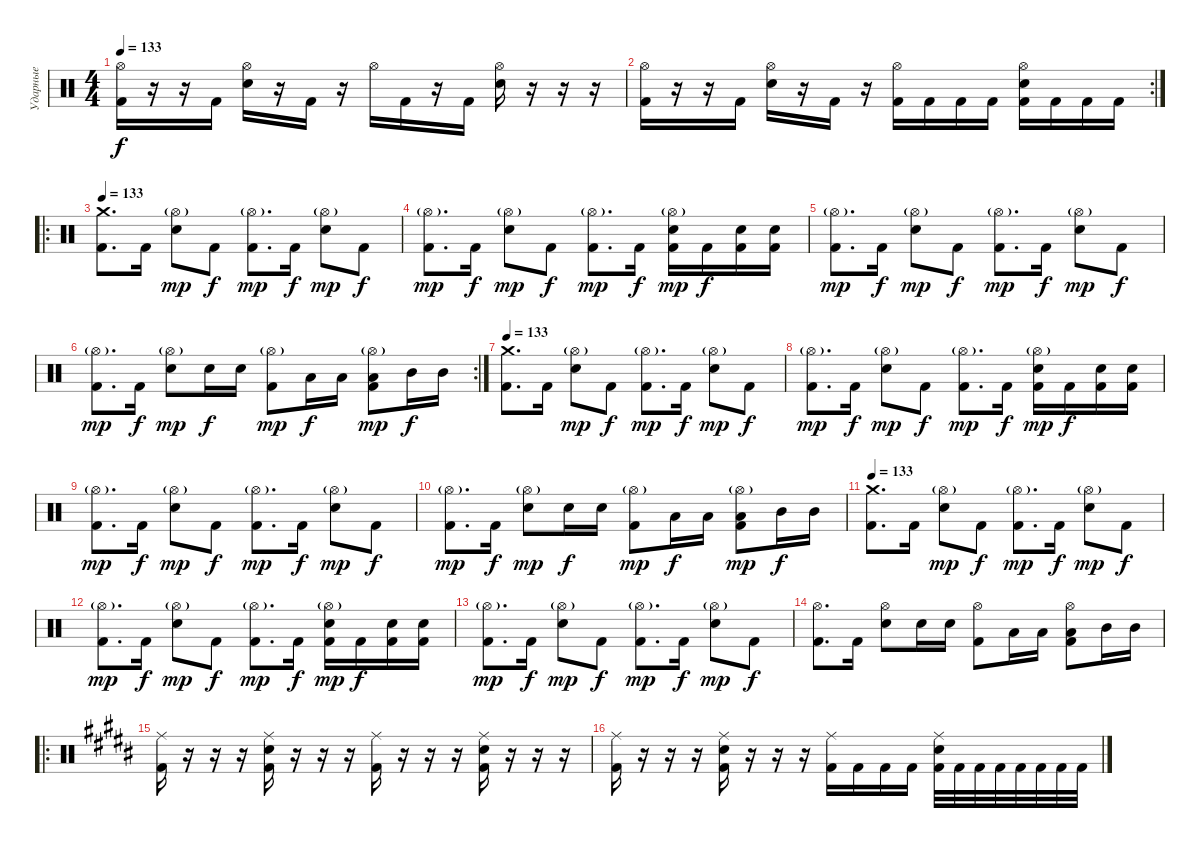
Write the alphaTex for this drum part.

\track ("Ударные" "Ударные") {instrument percussion}
\staff {score}
\articulation defaults
\ts (4 4)
\tempo 133
\clef neutral
\ks c
("Hi-Hat (open)" "Kick (hit) 2").16{dy f} r.16 r.16 "Kick (hit) 2".16 ("Hi-Hat (open)" "Electric Snare (hit)").16 r.16 "Kick (hit) 2".16 r.16 "Hi-Hat (open)".16 "Kick (hit) 2".16 r.16 "Kick (hit) 2".16 ("Hi-Hat (open)" "Electric Snare (hit)").16 r.16 r.16 r.16 |
\rc 2
("Hi-Hat (open)" "Kick (hit) 2").16 r.16 r.16 "Kick (hit) 2".16 ("Hi-Hat (open)" "Electric Snare (hit)").16 r.16 "Kick (hit) 2".16 r.16 ("Hi-Hat (open)" "Kick (hit) 2").16 "Kick (hit) 2".16 "Kick (hit) 2".16 "Kick (hit) 2".16 ("Hi-Hat (open)" "Electric Snare (hit)" "Kick (hit) 2").16 "Kick (hit) 2".16 "Kick (hit) 2".16 "Kick (hit) 2".16 |
\ro
\tempo 133
("Crash medium (hit)" "Kick (hit) 2").8{d} "Kick (hit) 2".16 ("Hi-Hat (open)"{g} "Electric Snare (hit)").8{dy mp} "Kick (hit) 2".8{dy f} ("Hi-Hat (open)"{g} "Kick (hit) 2").8{d dy mp} "Kick (hit) 2".16{dy f} ("Hi-Hat (open)"{g} "Electric Snare (hit)").8{dy mp} "Kick (hit) 2".8{dy f} |
("Hi-Hat (open)"{g} "Kick (hit) 2").8{d dy mp} "Kick (hit) 2".16{dy f} ("Hi-Hat (open)"{g} "Electric Snare (hit)").8{dy mp} "Kick (hit) 2".8{dy f} ("Hi-Hat (open)"{g} "Kick (hit) 2").8{d dy mp} "Kick (hit) 2".16{dy f} ("Hi-Hat (open)"{g} "Electric Snare (hit)" "Kick (hit) 2").16{dy mp} "Kick (hit) 2".16{dy f} ("Electric Snare (hit)" "Kick (hit) 2").16 ("Electric Snare (hit)" "Kick (hit) 2").16 |
("Hi-Hat (open)"{g} "Kick (hit) 2").8{d dy mp} "Kick (hit) 2".16{dy f} ("Hi-Hat (open)"{g} "Electric Snare (hit)").8{dy mp} "Kick (hit) 2".8{dy f} ("Hi-Hat (open)"{g} "Kick (hit) 2").8{d dy mp} "Kick (hit) 2".16{dy f} ("Hi-Hat (open)"{g} "Electric Snare (hit)").8{dy mp} "Kick (hit) 2".8{dy f} |
\rc 2
("Hi-Hat (open)"{g} "Kick (hit) 2").8{d dy mp} "Kick (hit) 2".16{dy f} ("Hi-Hat (open)"{g} "Electric Snare (hit)").8{dy mp} "Electric Snare (hit)".16{dy f} "Electric Snare (hit)".16 ("Hi-Hat (open)"{g} "Kick (hit) 2").8{dy mp} "Low Tom (hit)".16{dy f} "Low Tom (hit)".16 ("Hi-Hat (open)"{g} "Low Tom (hit)" "Kick (hit) 2").8{dy mp} "Mid Tom (hit)".16{dy f} "Mid Tom (hit)".16 |
\tempo 133
("Crash medium (hit)" "Kick (hit) 2").8{d} "Kick (hit) 2".16 ("Hi-Hat (open)"{g} "Electric Snare (hit)").8{dy mp} "Kick (hit) 2".8{dy f} ("Hi-Hat (open)"{g} "Kick (hit) 2").8{d dy mp} "Kick (hit) 2".16{dy f} ("Hi-Hat (open)"{g} "Electric Snare (hit)").8{dy mp} "Kick (hit) 2".8{dy f} |
("Hi-Hat (open)"{g} "Kick (hit) 2").8{d dy mp} "Kick (hit) 2".16{dy f} ("Hi-Hat (open)"{g} "Electric Snare (hit)").8{dy mp} "Kick (hit) 2".8{dy f} ("Hi-Hat (open)"{g} "Kick (hit) 2").8{d dy mp} "Kick (hit) 2".16{dy f} ("Hi-Hat (open)"{g} "Electric Snare (hit)" "Kick (hit) 2").16{dy mp} "Kick (hit) 2".16{dy f} ("Electric Snare (hit)" "Kick (hit) 2").16 ("Electric Snare (hit)" "Kick (hit) 2").16 |
("Hi-Hat (open)"{g} "Kick (hit) 2").8{d dy mp} "Kick (hit) 2".16{dy f} ("Hi-Hat (open)"{g} "Electric Snare (hit)").8{dy mp} "Kick (hit) 2".8{dy f} ("Hi-Hat (open)"{g} "Kick (hit) 2").8{d dy mp} "Kick (hit) 2".16{dy f} ("Hi-Hat (open)"{g} "Electric Snare (hit)").8{dy mp} "Kick (hit) 2".8{dy f} |
("Hi-Hat (open)"{g} "Kick (hit) 2").8{d dy mp} "Kick (hit) 2".16{dy f} ("Hi-Hat (open)"{g} "Electric Snare (hit)").8{dy mp} "Electric Snare (hit)".16{dy f} "Electric Snare (hit)".16 ("Hi-Hat (open)"{g} "Kick (hit) 2").8{dy mp} "Low Tom (hit)".16{dy f} "Low Tom (hit)".16 ("Hi-Hat (open)"{g} "Low Tom (hit)" "Kick (hit) 2").8{dy mp} "Mid Tom (hit)".16{dy f} "Mid Tom (hit)".16 |
\tempo 133
("Crash medium (hit)" "Kick (hit) 2").8{d} "Kick (hit) 2".16 ("Hi-Hat (open)"{g} "Electric Snare (hit)").8{dy mp} "Kick (hit) 2".8{dy f} ("Hi-Hat (open)"{g} "Kick (hit) 2").8{d dy mp} "Kick (hit) 2".16{dy f} ("Hi-Hat (open)"{g} "Electric Snare (hit)").8{dy mp} "Kick (hit) 2".8{dy f} |
("Hi-Hat (open)"{g} "Kick (hit) 2").8{d dy mp} "Kick (hit) 2".16{dy f} ("Hi-Hat (open)"{g} "Electric Snare (hit)").8{dy mp} "Kick (hit) 2".8{dy f} ("Hi-Hat (open)"{g} "Kick (hit) 2").8{d dy mp} "Kick (hit) 2".16{dy f} ("Hi-Hat (open)"{g} "Electric Snare (hit)" "Kick (hit) 2").16{dy mp} "Kick (hit) 2".16{dy f} ("Electric Snare (hit)" "Kick (hit) 2").16 ("Electric Snare (hit)" "Kick (hit) 2").16 |
("Hi-Hat (open)"{g} "Kick (hit) 2").8{d dy mp} "Kick (hit) 2".16{dy f} ("Hi-Hat (open)"{g} "Electric Snare (hit)").8{dy mp} "Kick (hit) 2".8{dy f} ("Hi-Hat (open)"{g} "Kick (hit) 2").8{d dy mp} "Kick (hit) 2".16{dy f} ("Hi-Hat (open)"{g} "Electric Snare (hit)").8{dy mp} "Kick (hit) 2".8{dy f} |
("Hi-Hat (open)" "Kick (hit) 2").8{d} "Kick (hit) 2".16 ("Hi-Hat (open)" "Electric Snare (hit)").8 "Electric Snare (hit)".16 "Electric Snare (hit)".16 ("Hi-Hat (open)" "Kick (hit) 2").8 "Low Tom (hit)".16 "Low Tom (hit)".16 ("Hi-Hat (open)" "Low Tom (hit)" "Kick (hit) 2").8 "Mid Tom (hit)".16 "Mid Tom (hit)".16 |
\ro
\ks g#minor
("Ride (middle)" "Kick (hit) 2").16 r.16 r.16 r.16 ("Ride (middle)" "Electric Snare (hit)" "Kick (hit) 2").16 r.16 r.16 r.16 ("Ride (middle)" "Kick (hit) 2").16 r.16 r.16 r.16 ("Ride (middle)" "Electric Snare (hit)" "Kick (hit) 2").16 r.16 r.16 r.16 |
("Ride (middle)" "Kick (hit) 2").16 r.16 r.16 r.16 ("Ride (middle)" "Electric Snare (hit)" "Kick (hit) 2").16 r.16 r.16 r.16 ("Ride (middle)" "Kick (hit) 2").16 "Kick (hit) 2".16 "Kick (hit) 2".16 "Kick (hit) 2".16 ("Ride (middle)" "Electric Snare (hit)" "Kick (hit) 2").32 "Kick (hit) 2".32 "Kick (hit) 2".32 "Kick (hit) 2".32 "Kick (hit) 2".32 "Kick (hit) 2".32 "Kick (hit) 2".32 "Kick (hit) 2".32
